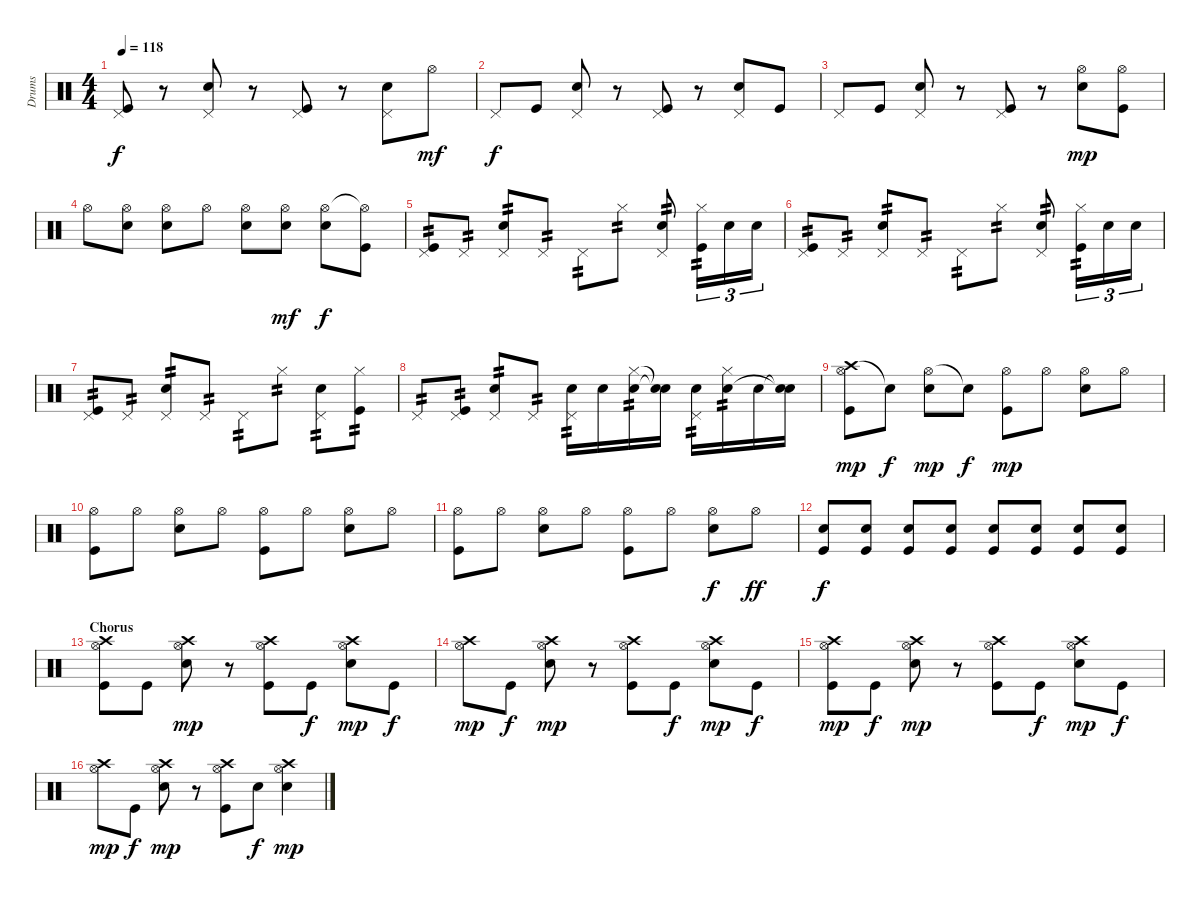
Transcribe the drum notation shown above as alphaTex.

\track ("Drums" "Drums") {instrument percussion}
\staff {score}
\articulation defaults
\ts (4 4)
\tempo 118
\clef neutral
\ks c
("Pedal Hi-Hat (hit)" "Kick (hit)").8{dy f} r.8 ("Pedal Hi-Hat (hit)" "Snare (hit) 2").8 r.8 ("Pedal Hi-Hat (hit)" "Kick (hit)").8 r.8 ("Pedal Hi-Hat (hit)" "Snare (hit) 2").8 "Hi-Hat (open)".8{dy mf} |
"Pedal Hi-Hat (hit)".8{dy f} "Kick (hit)".8 ("Pedal Hi-Hat (hit)" "Snare (hit) 2").8 r.8 ("Pedal Hi-Hat (hit)" "Kick (hit)").8 r.8 ("Pedal Hi-Hat (hit)" "Snare (hit) 2").8 "Kick (hit)".8 |
"Pedal Hi-Hat (hit)".8 "Kick (hit)".8 ("Pedal Hi-Hat (hit)" "Snare (hit) 2").8 r.8 ("Pedal Hi-Hat (hit)" "Kick (hit)").8 r.8 ("Hi-Hat (open)" "Snare (hit) 2").8{dy mp} ("Hi-Hat (open)" "Kick (hit)").8 |
"Hi-Hat (open)".8 ("Hi-Hat (open)" "Snare (hit) 2").8 ("Hi-Hat (open)" "Snare (hit) 2").8 "Hi-Hat (open)".8 ("Hi-Hat (open)" "Snare (hit) 2").8 ("Hi-Hat (open)" "Snare (hit) 2").8{dy mf} ("Hi-Hat (open)" "Snare (hit) 2").8{dy f} ("Hi-Hat (open)"{t} "Kick (hit)").8 |
("Pedal Hi-Hat (hit)" "Kick (hit)").8{tp 2} "Pedal Hi-Hat (hit)".8{tp 2} ("Pedal Hi-Hat (hit)" "Snare (hit) 2").8{tp 2} "Pedal Hi-Hat (hit)".8{tp 2} "Pedal Hi-Hat (hit)".8{tp 2} "Hi-Hat (closed)".8{tp 2} ("Pedal Hi-Hat (hit)" "Snare (hit) 2").8{tp 2} ("Hi-Hat (closed)" "Kick (hit)").16{tu (3 2) tp 2} "Snare (hit) 2".16{tu (3 2)} "Snare (hit) 2".16{tu (3 2)} |
("Pedal Hi-Hat (hit)" "Kick (hit)").8{tp 2} "Pedal Hi-Hat (hit)".8{tp 2} ("Pedal Hi-Hat (hit)" "Snare (hit) 2").8{tp 2} "Pedal Hi-Hat (hit)".8{tp 2} "Pedal Hi-Hat (hit)".8{tp 2} "Hi-Hat (closed)".8{tp 2} ("Pedal Hi-Hat (hit)" "Snare (hit) 2").8{tp 2} ("Hi-Hat (closed)" "Kick (hit)").16{tu (3 2) tp 2} "Snare (hit) 2".16{tu (3 2)} "Snare (hit) 2".16{tu (3 2)} |
("Pedal Hi-Hat (hit)" "Kick (hit)").8{tp 2} "Pedal Hi-Hat (hit)".8{tp 2} ("Pedal Hi-Hat (hit)" "Snare (hit) 2").8{tp 2} "Pedal Hi-Hat (hit)".8{tp 2} "Pedal Hi-Hat (hit)".8{tp 2} "Hi-Hat (closed)".8{tp 2} ("Pedal Hi-Hat (hit)" "Snare (hit) 2").8{tp 2} ("Hi-Hat (closed)" "Kick (hit)").8{tp 2} |
"Pedal Hi-Hat (hit)".8{tp 2} ("Pedal Hi-Hat (hit)" "Kick (hit)").8{tp 2} ("Pedal Hi-Hat (hit)" "Snare (hit) 2").8{tp 2} "Pedal Hi-Hat (hit)".8{tp 2} ("Pedal Hi-Hat (hit)" "Snare (hit) 2").16{tp 2} "Snare (hit) 2".16 ("Hi-Hat (closed)" "Snare (hit) 2").16{tp 2} ("Snare (hit)"{t} "Snare (hit)"{t}).16 ("Pedal Hi-Hat (hit)" "Snare (hit) 2").16{tp 2} ("Hi-Hat (closed)" "Snare (hit) 2").16{tp 2} "Snare (hit) 2".16 ("Snare (hit)"{t} "Snare (hit)"{t}).16 |
("Crash high (hit)" "Hi-Hat (open)" "Kick (hit)").8{dy mp} "Snare (hit)"{t}.8{dy f} ("Hi-Hat (open)" "Snare (hit) 2").8{dy mp} "Snare (hit)"{t}.8{dy f} ("Hi-Hat (open)" "Kick (hit)").8{dy mp} "Hi-Hat (open)".8 ("Hi-Hat (open)" "Snare (hit) 2").8 "Hi-Hat (open)".8 |
("Hi-Hat (open)" "Kick (hit)").8 "Hi-Hat (open)".8 ("Hi-Hat (open)" "Snare (hit) 2").8 "Hi-Hat (open)".8 ("Hi-Hat (open)" "Kick (hit)").8 "Hi-Hat (open)".8 ("Hi-Hat (open)" "Snare (hit) 2").8 "Hi-Hat (open)".8 |
("Hi-Hat (open)" "Kick (hit)").8 "Hi-Hat (open)".8 ("Hi-Hat (open)" "Snare (hit) 2").8 "Hi-Hat (open)".8 ("Hi-Hat (open)" "Kick (hit)").8 "Hi-Hat (open)".8 ("Hi-Hat (open)" "Snare (hit) 2").8{dy f} "Hi-Hat (open)".8{dy ff} |
("Snare (hit) 2" "Kick (hit)").8{dy f} ("Snare (hit) 2" "Kick (hit)").8 ("Snare (hit) 2" "Kick (hit)").8 ("Snare (hit) 2" "Kick (hit)").8 ("Snare (hit) 2" "Kick (hit)").8 ("Snare (hit) 2" "Kick (hit)").8 ("Snare (hit) 2" "Kick (hit)").8 ("Snare (hit) 2" "Kick (hit)").8 |
\section ("" "Chorus")
("Crash high (hit)" "Hi-Hat (open)" "Kick (hit)").8 "Kick (hit)".8 ("Crash high (hit)" "Hi-Hat (open)" "Snare (hit) 2").8{dy mp} r.8 ("Crash high (hit)" "Hi-Hat (open)" "Kick (hit)").8 "Kick (hit)".8{dy f} ("Crash high (hit)" "Hi-Hat (open)" "Snare (hit) 2").8{dy mp} "Kick (hit)".8{dy f} |
("Crash high (hit)" "Hi-Hat (open)").8{dy mp} "Kick (hit)".8{dy f} ("Crash high (hit)" "Hi-Hat (open)" "Snare (hit) 2").8{dy mp} r.8 ("Crash high (hit)" "Hi-Hat (open)" "Kick (hit)").8 "Kick (hit)".8{dy f} ("Crash high (hit)" "Hi-Hat (open)" "Snare (hit) 2").8{dy mp} "Kick (hit)".8{dy f} |
("Crash high (hit)" "Hi-Hat (open)" "Kick (hit)").8{dy mp} "Kick (hit)".8{dy f} ("Crash high (hit)" "Hi-Hat (open)" "Snare (hit) 2").8{dy mp} r.8 ("Crash high (hit)" "Hi-Hat (open)" "Kick (hit)").8 "Kick (hit)".8{dy f} ("Crash high (hit)" "Hi-Hat (open)" "Snare (hit) 2").8{dy mp} "Kick (hit)".8{dy f} |
("Crash high (hit)" "Hi-Hat (open)").8{dy mp} "Kick (hit)".8{dy f} ("Crash high (hit)" "Hi-Hat (open)" "Snare (hit) 2").8{dy mp} r.8 ("Crash high (hit)" "Hi-Hat (open)" "Kick (hit)").8 "Snare (hit) 2".8{dy f} ("Crash high (hit)" "Hi-Hat (open)" "Snare (hit) 2").4{dy mp}
